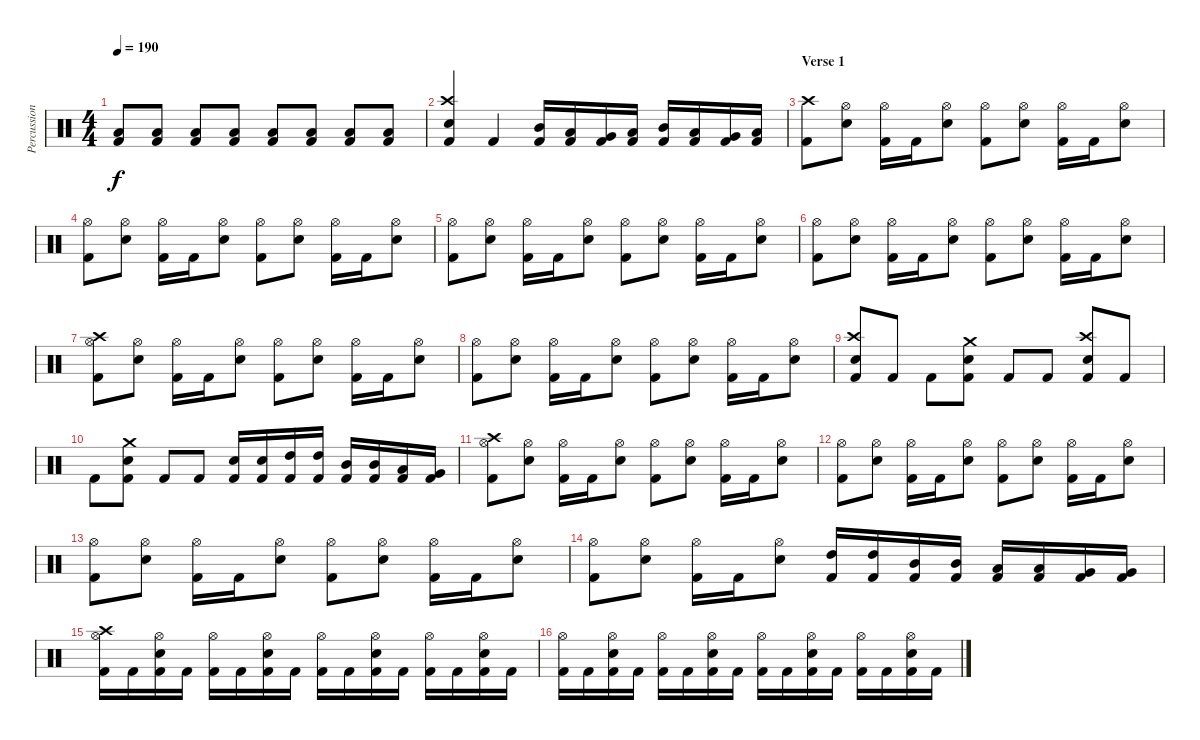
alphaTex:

\track ("Percussion" "Percussion") {instrument percussion}
\staff {score}
\articulation defaults
\ts (4 4)
\tempo 190
\clef neutral
\ks c
("Low Floor Tom (hit)" "Kick (hit) 2").8{dy f} ("Low Floor Tom (hit)" "Kick (hit) 2").8 ("Low Floor Tom (hit)" "Kick (hit) 2").8 ("Low Floor Tom (hit)" "Kick (hit) 2").8 ("Low Floor Tom (hit)" "Kick (hit) 2").8 ("Low Floor Tom (hit)" "Kick (hit) 2").8 ("Low Floor Tom (hit)" "Kick (hit) 2").8 ("Low Floor Tom (hit)" "Kick (hit) 2").8 |
("Crash high (hit)" "Snare (hit) 2" "Kick (hit) 2").4 "Kick (hit) 2".4 ("Mid Tom (hit)" "Kick (hit) 2").16 ("Low Tom (hit)" "Kick (hit) 2").16 ("Very Low Tom (hit)" "Kick (hit) 2").16 ("Low Tom (hit)" "Kick (hit) 2").16 ("Mid Tom (hit)" "Kick (hit) 2").16 ("Low Tom (hit)" "Kick (hit) 2").16 ("Very Low Tom (hit)" "Kick (hit) 2").16 ("Low Tom (hit)" "Kick (hit) 2").16 |
\section ("" "Verse 1")
("Crash high (hit)" "Kick (hit) 2").8 ("Hi-Hat (open)" "Snare (hit) 2").8 ("Hi-Hat (open)" "Kick (hit) 2").16 "Kick (hit) 2".16 ("Hi-Hat (open)" "Snare (hit) 2").8 ("Hi-Hat (open)" "Kick (hit) 2").8 ("Hi-Hat (open)" "Snare (hit) 2").8 ("Hi-Hat (open)" "Kick (hit) 2").16 "Kick (hit) 2".16 ("Hi-Hat (open)" "Snare (hit) 2").8 |
("Hi-Hat (open)" "Kick (hit) 2").8 ("Hi-Hat (open)" "Snare (hit) 2").8 ("Hi-Hat (open)" "Kick (hit) 2").16 "Kick (hit) 2".16 ("Hi-Hat (open)" "Snare (hit) 2").8 ("Hi-Hat (open)" "Kick (hit) 2").8 ("Hi-Hat (open)" "Snare (hit) 2").8 ("Hi-Hat (open)" "Kick (hit) 2").16 "Kick (hit) 2".16 ("Hi-Hat (open)" "Snare (hit) 2").8 |
("Hi-Hat (open)" "Kick (hit) 2").8 ("Hi-Hat (open)" "Snare (hit) 2").8 ("Hi-Hat (open)" "Kick (hit) 2").16 "Kick (hit) 2".16 ("Hi-Hat (open)" "Snare (hit) 2").8 ("Hi-Hat (open)" "Kick (hit) 2").8 ("Hi-Hat (open)" "Snare (hit) 2").8 ("Hi-Hat (open)" "Kick (hit) 2").16 "Kick (hit) 2".16 ("Hi-Hat (open)" "Snare (hit) 2").8 |
("Hi-Hat (open)" "Kick (hit) 2").8 ("Hi-Hat (open)" "Snare (hit) 2").8 ("Hi-Hat (open)" "Kick (hit) 2").16 "Kick (hit) 2".16 ("Hi-Hat (open)" "Snare (hit) 2").8 ("Hi-Hat (open)" "Kick (hit) 2").8 ("Hi-Hat (open)" "Snare (hit) 2").8 ("Hi-Hat (open)" "Kick (hit) 2").16 "Kick (hit) 2".16 ("Hi-Hat (open)" "Snare (hit) 2").8 |
("Crash high (hit)" "Hi-Hat (open)" "Kick (hit) 2").8 ("Hi-Hat (open)" "Snare (hit) 2").8 ("Hi-Hat (open)" "Kick (hit) 2").16 "Kick (hit) 2".16 ("Hi-Hat (open)" "Snare (hit) 2").8 ("Hi-Hat (open)" "Kick (hit) 2").8 ("Hi-Hat (open)" "Snare (hit) 2").8 ("Hi-Hat (open)" "Kick (hit) 2").16 "Kick (hit) 2".16 ("Hi-Hat (open)" "Snare (hit) 2").8 |
("Hi-Hat (open)" "Kick (hit) 2").8 ("Hi-Hat (open)" "Snare (hit) 2").8 ("Hi-Hat (open)" "Kick (hit) 2").16 "Kick (hit) 2".16 ("Hi-Hat (open)" "Snare (hit) 2").8 ("Hi-Hat (open)" "Kick (hit) 2").8 ("Hi-Hat (open)" "Snare (hit) 2").8 ("Hi-Hat (open)" "Kick (hit) 2").16 "Kick (hit) 2".16 ("Hi-Hat (open)" "Snare (hit) 2").8 |
("Crash high (hit)" "Snare (hit) 2" "Kick (hit) 2").8 "Kick (hit) 2".8 "Kick (hit) 2".8 ("Crash medium (hit)" "Snare (hit) 2" "Kick (hit) 2").8 "Kick (hit) 2".8 "Kick (hit) 2".8 ("Crash high (hit)" "Snare (hit) 2" "Kick (hit) 2").8 "Kick (hit) 2".8 |
"Kick (hit) 2".8 ("Crash medium (hit)" "Snare (hit) 2" "Kick (hit) 2").8 "Kick (hit) 2".8 "Kick (hit) 2".8 ("Snare (hit) 2" "Kick (hit) 2").16 ("Snare (hit) 2" "Kick (hit) 2").16 ("High Tom (hit)" "Kick (hit) 2").16 ("High Tom (hit)" "Kick (hit) 2").16 ("Mid Tom (hit)" "Kick (hit) 2").16 ("Mid Tom (hit)" "Kick (hit) 2").16 ("Low Tom (hit)" "Kick (hit) 2").16 ("Very Low Tom (hit)" "Kick (hit) 2").16 |
("Crash high (hit)" "Hi-Hat (open)" "Kick (hit) 2").8 ("Hi-Hat (open)" "Snare (hit) 2").8 ("Hi-Hat (open)" "Kick (hit) 2").16 "Kick (hit) 2".16 ("Hi-Hat (open)" "Snare (hit) 2").8 ("Hi-Hat (open)" "Kick (hit) 2").8 ("Hi-Hat (open)" "Snare (hit) 2").8 ("Hi-Hat (open)" "Kick (hit) 2").16 "Kick (hit) 2".16 ("Hi-Hat (open)" "Snare (hit) 2").8 |
("Hi-Hat (open)" "Kick (hit) 2").8 ("Hi-Hat (open)" "Snare (hit) 2").8 ("Hi-Hat (open)" "Kick (hit) 2").16 "Kick (hit) 2".16 ("Hi-Hat (open)" "Snare (hit) 2").8 ("Hi-Hat (open)" "Kick (hit) 2").8 ("Hi-Hat (open)" "Snare (hit) 2").8 ("Hi-Hat (open)" "Kick (hit) 2").16 "Kick (hit) 2".16 ("Hi-Hat (open)" "Snare (hit) 2").8 |
("Hi-Hat (open)" "Kick (hit) 2").8 ("Hi-Hat (open)" "Snare (hit) 2").8 ("Hi-Hat (open)" "Kick (hit) 2").16 "Kick (hit) 2".16 ("Hi-Hat (open)" "Snare (hit) 2").8 ("Hi-Hat (open)" "Kick (hit) 2").8 ("Hi-Hat (open)" "Snare (hit) 2").8 ("Hi-Hat (open)" "Kick (hit) 2").16 "Kick (hit) 2".16 ("Hi-Hat (open)" "Snare (hit) 2").8 |
("Hi-Hat (open)" "Kick (hit) 2").8 ("Hi-Hat (open)" "Snare (hit) 2").8 ("Hi-Hat (open)" "Kick (hit) 2").16 "Kick (hit) 2".16 ("Hi-Hat (open)" "Snare (hit) 2").8 ("High Tom (hit)" "Kick (hit) 2").16 ("High Tom (hit)" "Kick (hit) 2").16 ("Mid Tom (hit)" "Kick (hit) 2").16 ("Mid Tom (hit)" "Kick (hit) 2").16 ("Low Tom (hit)" "Kick (hit) 2").16 ("Low Tom (hit)" "Kick (hit) 2").16 ("Very Low Tom (hit)" "Kick (hit) 2").16 ("Very Low Tom (hit)" "Kick (hit) 2").16 |
("Crash high (hit)" "Hi-Hat (open)" "Kick (hit) 2").16 "Kick (hit) 2".16 ("Hi-Hat (open)" "Snare (hit) 2" "Kick (hit) 2").16 "Kick (hit) 2".16 ("Hi-Hat (open)" "Kick (hit) 2").16 "Kick (hit) 2".16 ("Hi-Hat (open)" "Snare (hit) 2" "Kick (hit) 2").16 "Kick (hit) 2".16 ("Hi-Hat (open)" "Kick (hit) 2").16 "Kick (hit) 2".16 ("Hi-Hat (open)" "Snare (hit) 2" "Kick (hit) 2").16 "Kick (hit) 2".16 ("Hi-Hat (open)" "Kick (hit) 2").16 "Kick (hit) 2".16 ("Hi-Hat (open)" "Snare (hit) 2" "Kick (hit) 2").16 "Kick (hit) 2".16 |
("Hi-Hat (open)" "Kick (hit) 2").16 "Kick (hit) 2".16 ("Hi-Hat (open)" "Snare (hit) 2" "Kick (hit) 2").16 "Kick (hit) 2".16 ("Hi-Hat (open)" "Kick (hit) 2").16 "Kick (hit) 2".16 ("Hi-Hat (open)" "Snare (hit) 2" "Kick (hit) 2").16 "Kick (hit) 2".16 ("Hi-Hat (open)" "Kick (hit) 2").16 "Kick (hit) 2".16 ("Hi-Hat (open)" "Snare (hit) 2" "Kick (hit) 2").16 "Kick (hit) 2".16 ("Hi-Hat (open)" "Kick (hit) 2").16 "Kick (hit) 2".16 ("Hi-Hat (open)" "Snare (hit) 2" "Kick (hit) 2").16 "Kick (hit) 2".16
